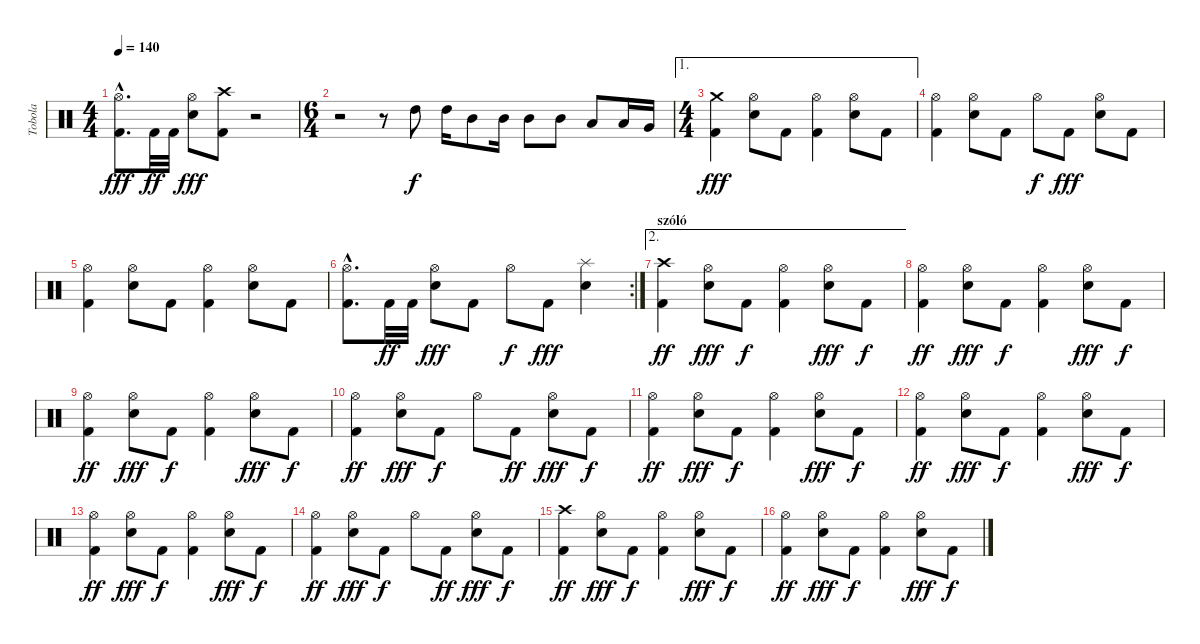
\track ("Tobola" "Tobola") {instrument percussion}
\staff {score}
\articulation defaults
\ts (4 4)
\tempo 140
\clef neutral
\ks c
("Hi-Hat (open)"{hac} "Kick (hit) 2"{hac}).8{d dy fff} "Kick (hit) 2".32{dy ff} "Kick (hit) 2".32 ("Hi-Hat (open)" "Snare (hit) 2").8{dy fff} ("Crash high (hit)" "Kick (hit) 2").8 r.2 |
\ts (6 4)
r.2 r.8 "High Tom (hit)".8{dy f} "High Tom (hit)".16 "Mid Tom (hit)".8 "Mid Tom (hit)".16 "Mid Tom (hit)".8 "Mid Tom (hit)".8 "Low Tom (hit)".8 "Low Tom (hit)".16 "Very Low Tom (hit)".16 |
\ae 1
\ts (4 4)
("Crash medium (hit)" "Kick (hit) 2").4{dy fff} ("Hi-Hat (open)" "Snare (hit) 2").8 "Kick (hit) 2".8 ("Hi-Hat (open)" "Kick (hit) 2").4 ("Hi-Hat (open)" "Snare (hit) 2").8 "Kick (hit) 2".8 |
("Hi-Hat (open)" "Kick (hit) 2").4 ("Hi-Hat (open)" "Snare (hit) 2").8 "Kick (hit) 2".8 "Hi-Hat (open)".8{dy f} "Kick (hit) 2".8{dy fff} ("Hi-Hat (open)" "Snare (hit) 2").8 "Kick (hit) 2".8 |
("Hi-Hat (open)" "Kick (hit) 2").4 ("Hi-Hat (open)" "Snare (hit) 2").8 "Kick (hit) 2".8 ("Hi-Hat (open)" "Kick (hit) 2").4 ("Hi-Hat (open)" "Snare (hit) 2").8 "Kick (hit) 2".8 |
\rc 2
("Hi-Hat (open)"{hac} "Kick (hit) 2"{hac}).8{d} "Kick (hit) 2".32{dy ff} "Kick (hit) 2".32 ("Hi-Hat (open)" "Snare (hit) 2").8{dy fff} "Kick (hit) 2".8 "Hi-Hat (open)".8{dy f} "Kick (hit) 2".8{dy fff} ("Splash (hit)" "Snare (hit) 2").4 |
\ae 2
\section ("" "szóló")
("Crash high (hit)" "Kick (hit) 2").4{dy ff} ("Hi-Hat (open)" "Snare (hit) 2").8{dy fff} "Kick (hit) 2".8{dy f} ("Hi-Hat (open)" "Kick (hit) 2").4 ("Hi-Hat (open)" "Snare (hit) 2").8{dy fff} "Kick (hit) 2".8{dy f} |
("Hi-Hat (open)" "Kick (hit) 2").4{dy ff} ("Hi-Hat (open)" "Snare (hit) 2").8{dy fff} "Kick (hit) 2".8{dy f} ("Hi-Hat (open)" "Kick (hit) 2").4 ("Hi-Hat (open)" "Snare (hit) 2").8{dy fff} "Kick (hit) 2".8{dy f} |
("Hi-Hat (open)" "Kick (hit) 2").4{dy ff} ("Hi-Hat (open)" "Snare (hit) 2").8{dy fff} "Kick (hit) 2".8{dy f} ("Hi-Hat (open)" "Kick (hit) 2").4 ("Hi-Hat (open)" "Snare (hit) 2").8{dy fff} "Kick (hit) 2".8{dy f} |
("Hi-Hat (open)" "Kick (hit) 2").4{dy ff} ("Hi-Hat (open)" "Snare (hit) 2").8{dy fff} "Kick (hit) 2".8{dy f} "Hi-Hat (open)".8 "Kick (hit) 2".8{dy ff} ("Hi-Hat (open)" "Snare (hit) 2").8{dy fff} "Kick (hit) 2".8{dy f} |
("Hi-Hat (open)" "Kick (hit) 2").4{dy ff} ("Hi-Hat (open)" "Snare (hit) 2").8{dy fff} "Kick (hit) 2".8{dy f} ("Hi-Hat (open)" "Kick (hit) 2").4 ("Hi-Hat (open)" "Snare (hit) 2").8{dy fff} "Kick (hit) 2".8{dy f} |
("Hi-Hat (open)" "Kick (hit) 2").4{dy ff} ("Hi-Hat (open)" "Snare (hit) 2").8{dy fff} "Kick (hit) 2".8{dy f} ("Hi-Hat (open)" "Kick (hit) 2").4 ("Hi-Hat (open)" "Snare (hit) 2").8{dy fff} "Kick (hit) 2".8{dy f} |
("Hi-Hat (open)" "Kick (hit) 2").4{dy ff} ("Hi-Hat (open)" "Snare (hit) 2").8{dy fff} "Kick (hit) 2".8{dy f} ("Hi-Hat (open)" "Kick (hit) 2").4 ("Hi-Hat (open)" "Snare (hit) 2").8{dy fff} "Kick (hit) 2".8{dy f} |
("Hi-Hat (open)" "Kick (hit) 2").4{dy ff} ("Hi-Hat (open)" "Snare (hit) 2").8{dy fff} "Kick (hit) 2".8{dy f} "Hi-Hat (open)".8 "Kick (hit) 2".8{dy ff} ("Hi-Hat (open)" "Snare (hit) 2").8{dy fff} "Kick (hit) 2".8{dy f} |
("Crash high (hit)" "Kick (hit) 2").4{dy ff} ("Hi-Hat (open)" "Snare (hit) 2").8{dy fff} "Kick (hit) 2".8{dy f} ("Hi-Hat (open)" "Kick (hit) 2").4 ("Hi-Hat (open)" "Snare (hit) 2").8{dy fff} "Kick (hit) 2".8{dy f} |
("Hi-Hat (open)" "Kick (hit) 2").4{dy ff} ("Hi-Hat (open)" "Snare (hit) 2").8{dy fff} "Kick (hit) 2".8{dy f} ("Hi-Hat (open)" "Kick (hit) 2").4 ("Hi-Hat (open)" "Snare (hit) 2").8{dy fff} "Kick (hit) 2".8{dy f}
